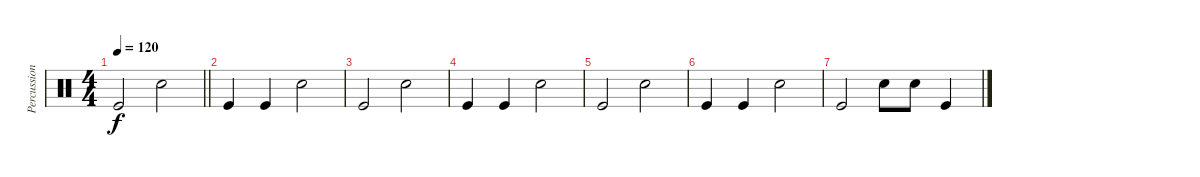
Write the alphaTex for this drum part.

\track ("Percussion" "Percussion") {instrument percussion}
\staff {score}
\articulation defaults
\ts (4 4)
\tempo 120
\clef neutral
\barLineRight lightlight
\ks c "Kick (hit)".2{dy f} "Snare (hit) 2".2
|
"Kick (hit)".4 "Kick (hit)".4 "Snare (hit) 2".2 |
"Kick (hit)".2 "Snare (hit) 2".2 |
"Kick (hit)".4 "Kick (hit)".4 "Snare (hit) 2".2 |
"Kick (hit)".2 "Snare (hit) 2".2 |
"Kick (hit)".4 "Kick (hit)".4 "Snare (hit) 2".2 |
"Kick (hit)".2 "Snare (hit) 2".8 "Snare (hit) 2".8 "Kick (hit)".4
